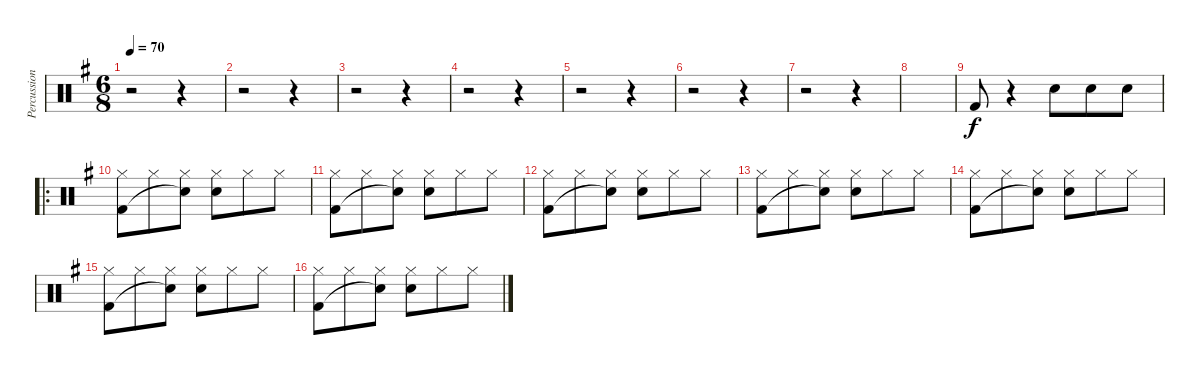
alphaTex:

\track ("Percussion" "Percussion") {instrument percussion}
\staff {score}
\articulation defaults
\ts (6 8)
\tempo 70
\clef neutral
\ks g
r.2{dy f} r.4 |
r.2 r.4 |
r.2 r.4 |
r.2 r.4 |
r.2 r.4 |
r.2 r.4 |
r.2 r.4 |
|
"Kick (hit) 2".8 r.4 "Snare (hit) 2".8 "Snare (hit) 2".8 "Snare (hit) 2".8 |
\ro
("Hi-Hat (closed)" "Kick (hit) 2").8 "Hi-Hat (closed)".8 ("Hi-Hat (closed)" "Snare (hit)"{t}).8 ("Hi-Hat (closed)" "Snare (hit) 2").8 "Hi-Hat (closed)".8 "Hi-Hat (closed)".8 |
("Hi-Hat (closed)" "Kick (hit) 2").8 "Hi-Hat (closed)".8 ("Hi-Hat (closed)" "Snare (hit)"{t}).8 ("Hi-Hat (closed)" "Snare (hit) 2").8 "Hi-Hat (closed)".8 "Hi-Hat (closed)".8 |
("Hi-Hat (closed)" "Kick (hit) 2").8 "Hi-Hat (closed)".8 ("Hi-Hat (closed)" "Snare (hit)"{t}).8 ("Hi-Hat (closed)" "Snare (hit) 2").8 "Hi-Hat (closed)".8 "Hi-Hat (closed)".8 |
("Hi-Hat (closed)" "Kick (hit) 2").8 "Hi-Hat (closed)".8 ("Hi-Hat (closed)" "Snare (hit)"{t}).8 ("Hi-Hat (closed)" "Snare (hit) 2").8 "Hi-Hat (closed)".8 "Hi-Hat (closed)".8 |
("Hi-Hat (closed)" "Kick (hit) 2").8 "Hi-Hat (closed)".8 ("Hi-Hat (closed)" "Snare (hit)"{t}).8 ("Hi-Hat (closed)" "Snare (hit) 2").8 "Hi-Hat (closed)".8 "Hi-Hat (closed)".8 |
("Hi-Hat (closed)" "Kick (hit) 2").8 "Hi-Hat (closed)".8 ("Hi-Hat (closed)" "Snare (hit)"{t}).8 ("Hi-Hat (closed)" "Snare (hit) 2").8 "Hi-Hat (closed)".8 "Hi-Hat (closed)".8 |
("Hi-Hat (closed)" "Kick (hit) 2").8 "Hi-Hat (closed)".8 ("Hi-Hat (closed)" "Snare (hit)"{t}).8 ("Hi-Hat (closed)" "Snare (hit) 2").8 "Hi-Hat (closed)".8 "Hi-Hat (closed)".8
